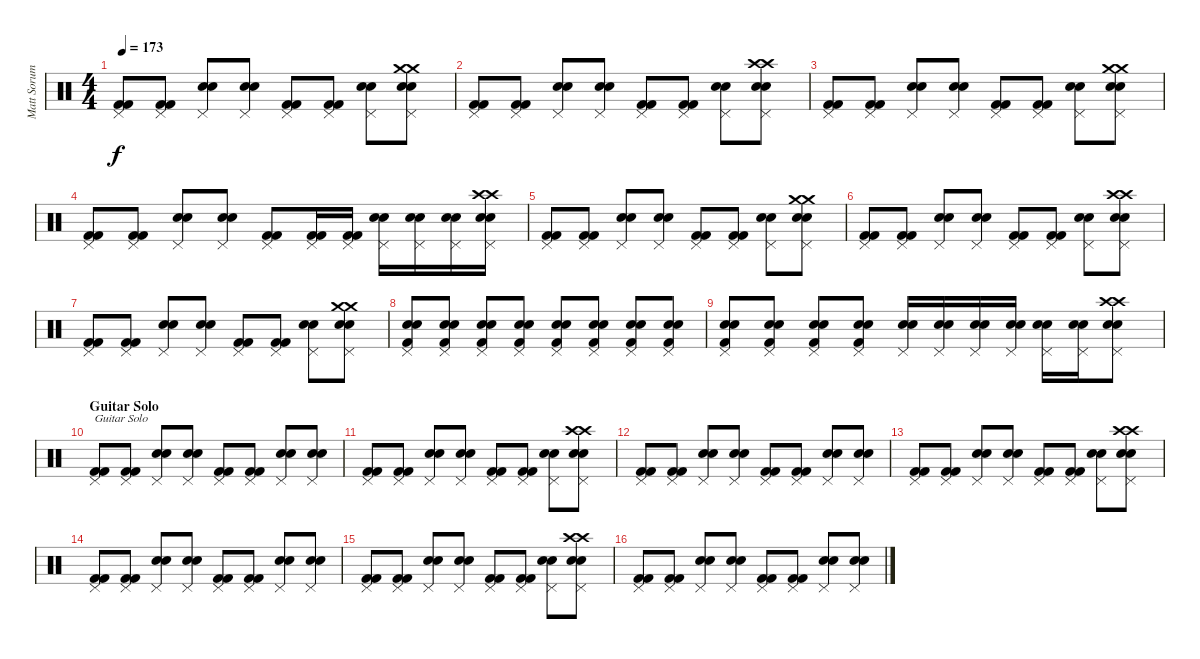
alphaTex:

\track ("Matt Sorum" "Matt Sorum") {instrument percussion}
\staff {score}
\articulation defaults
\ts (4 4)
\tempo 173
\clef neutral
\ks c
("Pedal Hi-Hat (hit)" "Kick (hit) 2" "Kick (hit) 2").8{dy f} ("Pedal Hi-Hat (hit)" "Kick (hit) 2" "Kick (hit) 2").8 ("Pedal Hi-Hat (hit)" "Snare (hit) 2" "Snare (hit) 2").8 ("Pedal Hi-Hat (hit)" "Snare (hit) 2" "Snare (hit) 2").8 ("Pedal Hi-Hat (hit)" "Kick (hit) 2" "Kick (hit) 2").8 ("Pedal Hi-Hat (hit)" "Kick (hit) 2" "Kick (hit) 2").8 ("Pedal Hi-Hat (hit)" "Snare (hit) 2" "Snare (hit) 2").8 ("Crash medium (hit)" "Crash medium (hit)" "Pedal Hi-Hat (hit)" "Snare (hit) 2" "Snare (hit) 2").8 |
("Pedal Hi-Hat (hit)" "Kick (hit) 2" "Kick (hit) 2").8 ("Pedal Hi-Hat (hit)" "Kick (hit) 2" "Kick (hit) 2").8 ("Pedal Hi-Hat (hit)" "Snare (hit) 2" "Snare (hit) 2").8 ("Pedal Hi-Hat (hit)" "Snare (hit) 2" "Snare (hit) 2").8 ("Pedal Hi-Hat (hit)" "Kick (hit) 2" "Kick (hit) 2").8 ("Pedal Hi-Hat (hit)" "Kick (hit) 2" "Kick (hit) 2").8 ("Pedal Hi-Hat (hit)" "Snare (hit) 2" "Snare (hit) 2").8 ("Crash high (hit)" "Crash high (hit)" "Pedal Hi-Hat (hit)" "Snare (hit) 2" "Snare (hit) 2").8 |
("Pedal Hi-Hat (hit)" "Kick (hit) 2" "Kick (hit) 2").8 ("Pedal Hi-Hat (hit)" "Kick (hit) 2" "Kick (hit) 2").8 ("Pedal Hi-Hat (hit)" "Snare (hit) 2" "Snare (hit) 2").8 ("Pedal Hi-Hat (hit)" "Snare (hit) 2" "Snare (hit) 2").8 ("Pedal Hi-Hat (hit)" "Kick (hit) 2" "Kick (hit) 2").8 ("Pedal Hi-Hat (hit)" "Kick (hit) 2" "Kick (hit) 2").8 ("Pedal Hi-Hat (hit)" "Snare (hit) 2" "Snare (hit) 2").8 ("Crash medium (hit)" "Crash medium (hit)" "Pedal Hi-Hat (hit)" "Snare (hit) 2" "Snare (hit) 2").8 |
("Pedal Hi-Hat (hit)" "Kick (hit) 2" "Kick (hit) 2").8 ("Pedal Hi-Hat (hit)" "Kick (hit) 2" "Kick (hit) 2").8 ("Pedal Hi-Hat (hit)" "Snare (hit) 2" "Snare (hit) 2").8 ("Pedal Hi-Hat (hit)" "Snare (hit) 2" "Snare (hit) 2").8 ("Pedal Hi-Hat (hit)" "Kick (hit) 2" "Kick (hit) 2").8 ("Pedal Hi-Hat (hit)" "Kick (hit) 2" "Kick (hit) 2").16 ("Pedal Hi-Hat (hit)" "Kick (hit) 2" "Kick (hit) 2").16 ("Pedal Hi-Hat (hit)" "Snare (hit) 2" "Snare (hit) 2").16 ("Pedal Hi-Hat (hit)" "Snare (hit) 2" "Snare (hit) 2").16 ("Pedal Hi-Hat (hit)" "Snare (hit) 2" "Snare (hit) 2").16 ("Crash high (hit)" "Crash high (hit)" "Pedal Hi-Hat (hit)" "Snare (hit) 2" "Snare (hit) 2").16 |
("Pedal Hi-Hat (hit)" "Kick (hit) 2" "Kick (hit) 2").8 ("Pedal Hi-Hat (hit)" "Kick (hit) 2" "Kick (hit) 2").8 ("Pedal Hi-Hat (hit)" "Snare (hit) 2" "Snare (hit) 2").8 ("Pedal Hi-Hat (hit)" "Snare (hit) 2" "Snare (hit) 2").8 ("Pedal Hi-Hat (hit)" "Kick (hit) 2" "Kick (hit) 2").8 ("Pedal Hi-Hat (hit)" "Kick (hit) 2" "Kick (hit) 2").8 ("Pedal Hi-Hat (hit)" "Snare (hit) 2" "Snare (hit) 2").8 ("Crash medium (hit)" "Crash medium (hit)" "Pedal Hi-Hat (hit)" "Snare (hit) 2" "Snare (hit) 2").8 |
("Pedal Hi-Hat (hit)" "Kick (hit) 2" "Kick (hit) 2").8 ("Pedal Hi-Hat (hit)" "Kick (hit) 2" "Kick (hit) 2").8 ("Pedal Hi-Hat (hit)" "Snare (hit) 2" "Snare (hit) 2").8 ("Pedal Hi-Hat (hit)" "Snare (hit) 2" "Snare (hit) 2").8 ("Pedal Hi-Hat (hit)" "Kick (hit) 2" "Kick (hit) 2").8 ("Pedal Hi-Hat (hit)" "Kick (hit) 2" "Kick (hit) 2").8 ("Pedal Hi-Hat (hit)" "Snare (hit) 2" "Snare (hit) 2").8 ("Crash high (hit)" "Crash high (hit)" "Pedal Hi-Hat (hit)" "Snare (hit) 2" "Snare (hit) 2").8 |
("Pedal Hi-Hat (hit)" "Kick (hit) 2" "Kick (hit) 2").8 ("Pedal Hi-Hat (hit)" "Kick (hit) 2" "Kick (hit) 2").8 ("Pedal Hi-Hat (hit)" "Snare (hit) 2" "Snare (hit) 2").8 ("Pedal Hi-Hat (hit)" "Snare (hit) 2" "Snare (hit) 2").8 ("Pedal Hi-Hat (hit)" "Kick (hit) 2" "Kick (hit) 2").8 ("Pedal Hi-Hat (hit)" "Kick (hit) 2" "Kick (hit) 2").8 ("Pedal Hi-Hat (hit)" "Snare (hit) 2" "Snare (hit) 2").8 ("Crash medium (hit)" "Crash medium (hit)" "Pedal Hi-Hat (hit)" "Snare (hit) 2" "Snare (hit) 2").8 |
("Pedal Hi-Hat (hit)" "Snare (hit) 2" "Snare (hit) 2" "Kick (hit) 2").8 ("Pedal Hi-Hat (hit)" "Snare (hit) 2" "Snare (hit) 2" "Kick (hit) 2").8 ("Pedal Hi-Hat (hit)" "Snare (hit) 2" "Snare (hit) 2" "Kick (hit) 2").8 ("Pedal Hi-Hat (hit)" "Snare (hit) 2" "Snare (hit) 2" "Kick (hit) 2").8 ("Pedal Hi-Hat (hit)" "Snare (hit) 2" "Snare (hit) 2" "Kick (hit) 2").8 ("Pedal Hi-Hat (hit)" "Snare (hit) 2" "Snare (hit) 2" "Kick (hit) 2").8 ("Pedal Hi-Hat (hit)" "Snare (hit) 2" "Snare (hit) 2" "Kick (hit) 2").8 ("Pedal Hi-Hat (hit)" "Snare (hit) 2" "Snare (hit) 2" "Kick (hit) 2").8 |
("Pedal Hi-Hat (hit)" "Snare (hit) 2" "Snare (hit) 2" "Kick (hit) 2").8 ("Pedal Hi-Hat (hit)" "Snare (hit) 2" "Snare (hit) 2" "Kick (hit) 2").8 ("Pedal Hi-Hat (hit)" "Snare (hit) 2" "Snare (hit) 2" "Kick (hit) 2").8 ("Pedal Hi-Hat (hit)" "Snare (hit) 2" "Snare (hit) 2" "Kick (hit) 2").8 ("Pedal Hi-Hat (hit)" "Snare (hit) 2" "Snare (hit) 2").16 ("Pedal Hi-Hat (hit)" "Snare (hit) 2" "Snare (hit) 2").16 ("Pedal Hi-Hat (hit)" "Snare (hit) 2" "Snare (hit) 2").16 ("Pedal Hi-Hat (hit)" "Snare (hit) 2" "Snare (hit) 2").16 ("Pedal Hi-Hat (hit)" "Snare (hit) 2" "Snare (hit) 2").16 ("Pedal Hi-Hat (hit)" "Snare (hit) 2" "Snare (hit) 2").16 ("Crash high (hit)" "Crash high (hit)" "Pedal Hi-Hat (hit)" "Snare (hit) 2" "Snare (hit) 2").8 |
\section ("" "Guitar Solo")
("Pedal Hi-Hat (hit)" "Kick (hit) 2" "Kick (hit) 2").8{txt "Guitar Solo"} ("Pedal Hi-Hat (hit)" "Kick (hit) 2" "Kick (hit) 2").8 ("Pedal Hi-Hat (hit)" "Snare (hit) 2" "Snare (hit) 2").8 ("Pedal Hi-Hat (hit)" "Snare (hit) 2" "Snare (hit) 2").8 ("Pedal Hi-Hat (hit)" "Kick (hit) 2" "Kick (hit) 2").8 ("Pedal Hi-Hat (hit)" "Kick (hit) 2" "Kick (hit) 2").8 ("Pedal Hi-Hat (hit)" "Snare (hit) 2" "Snare (hit) 2").8 ("Pedal Hi-Hat (hit)" "Snare (hit) 2" "Snare (hit) 2").8 |
("Pedal Hi-Hat (hit)" "Kick (hit) 2" "Kick (hit) 2").8 ("Pedal Hi-Hat (hit)" "Kick (hit) 2" "Kick (hit) 2").8 ("Pedal Hi-Hat (hit)" "Snare (hit) 2" "Snare (hit) 2").8 ("Pedal Hi-Hat (hit)" "Snare (hit) 2" "Snare (hit) 2").8 ("Pedal Hi-Hat (hit)" "Kick (hit) 2" "Kick (hit) 2").8 ("Pedal Hi-Hat (hit)" "Kick (hit) 2" "Kick (hit) 2").8 ("Pedal Hi-Hat (hit)" "Snare (hit) 2" "Snare (hit) 2").8 ("Crash high (hit)" "Crash high (hit)" "Pedal Hi-Hat (hit)" "Snare (hit) 2" "Snare (hit) 2").8 |
("Pedal Hi-Hat (hit)" "Kick (hit) 2" "Kick (hit) 2").8 ("Pedal Hi-Hat (hit)" "Kick (hit) 2" "Kick (hit) 2").8 ("Pedal Hi-Hat (hit)" "Snare (hit) 2" "Snare (hit) 2").8 ("Pedal Hi-Hat (hit)" "Snare (hit) 2" "Snare (hit) 2").8 ("Pedal Hi-Hat (hit)" "Kick (hit) 2" "Kick (hit) 2").8 ("Pedal Hi-Hat (hit)" "Kick (hit) 2" "Kick (hit) 2").8 ("Pedal Hi-Hat (hit)" "Snare (hit) 2" "Snare (hit) 2").8 ("Pedal Hi-Hat (hit)" "Snare (hit) 2" "Snare (hit) 2").8 |
("Pedal Hi-Hat (hit)" "Kick (hit) 2" "Kick (hit) 2").8 ("Pedal Hi-Hat (hit)" "Kick (hit) 2" "Kick (hit) 2").8 ("Pedal Hi-Hat (hit)" "Snare (hit) 2" "Snare (hit) 2").8 ("Pedal Hi-Hat (hit)" "Snare (hit) 2" "Snare (hit) 2").8 ("Pedal Hi-Hat (hit)" "Kick (hit) 2" "Kick (hit) 2").8 ("Pedal Hi-Hat (hit)" "Kick (hit) 2" "Kick (hit) 2").8 ("Pedal Hi-Hat (hit)" "Snare (hit) 2" "Snare (hit) 2").8 ("Crash high (hit)" "Crash high (hit)" "Pedal Hi-Hat (hit)" "Snare (hit) 2" "Snare (hit) 2").8 |
("Pedal Hi-Hat (hit)" "Kick (hit) 2" "Kick (hit) 2").8 ("Pedal Hi-Hat (hit)" "Kick (hit) 2" "Kick (hit) 2").8 ("Pedal Hi-Hat (hit)" "Snare (hit) 2" "Snare (hit) 2").8 ("Pedal Hi-Hat (hit)" "Snare (hit) 2" "Snare (hit) 2").8 ("Pedal Hi-Hat (hit)" "Kick (hit) 2" "Kick (hit) 2").8 ("Pedal Hi-Hat (hit)" "Kick (hit) 2" "Kick (hit) 2").8 ("Pedal Hi-Hat (hit)" "Snare (hit) 2" "Snare (hit) 2").8 ("Pedal Hi-Hat (hit)" "Snare (hit) 2" "Snare (hit) 2").8 |
("Pedal Hi-Hat (hit)" "Kick (hit) 2" "Kick (hit) 2").8 ("Pedal Hi-Hat (hit)" "Kick (hit) 2" "Kick (hit) 2").8 ("Pedal Hi-Hat (hit)" "Snare (hit) 2" "Snare (hit) 2").8 ("Pedal Hi-Hat (hit)" "Snare (hit) 2" "Snare (hit) 2").8 ("Pedal Hi-Hat (hit)" "Kick (hit) 2" "Kick (hit) 2").8 ("Pedal Hi-Hat (hit)" "Kick (hit) 2" "Kick (hit) 2").8 ("Pedal Hi-Hat (hit)" "Snare (hit) 2" "Snare (hit) 2").8 ("Crash high (hit)" "Crash high (hit)" "Pedal Hi-Hat (hit)" "Snare (hit) 2" "Snare (hit) 2").8 |
("Pedal Hi-Hat (hit)" "Kick (hit) 2" "Kick (hit) 2").8 ("Pedal Hi-Hat (hit)" "Kick (hit) 2" "Kick (hit) 2").8 ("Pedal Hi-Hat (hit)" "Snare (hit) 2" "Snare (hit) 2").8 ("Pedal Hi-Hat (hit)" "Snare (hit) 2" "Snare (hit) 2").8 ("Pedal Hi-Hat (hit)" "Kick (hit) 2" "Kick (hit) 2").8 ("Pedal Hi-Hat (hit)" "Kick (hit) 2" "Kick (hit) 2").8 ("Pedal Hi-Hat (hit)" "Snare (hit) 2" "Snare (hit) 2").8 ("Pedal Hi-Hat (hit)" "Snare (hit) 2" "Snare (hit) 2").8
